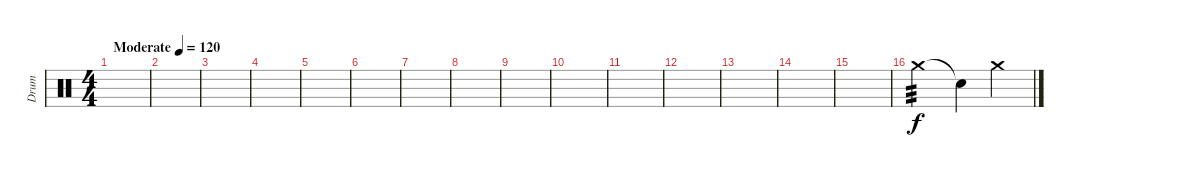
\track ("Drum" "Drum") {instrument percussion}
\staff {score}
\articulation defaults
\ts (4 4)
\tempo (120 "Moderate")
\clef neutral
\ks c
|
|
|
|
|
|
|
|
|
|
|
|
|
|
|
"Crash medium (hit)".2{tp 3 volume 16} "Snare (hit)"{t}.4 "Crash medium (hit)".4
